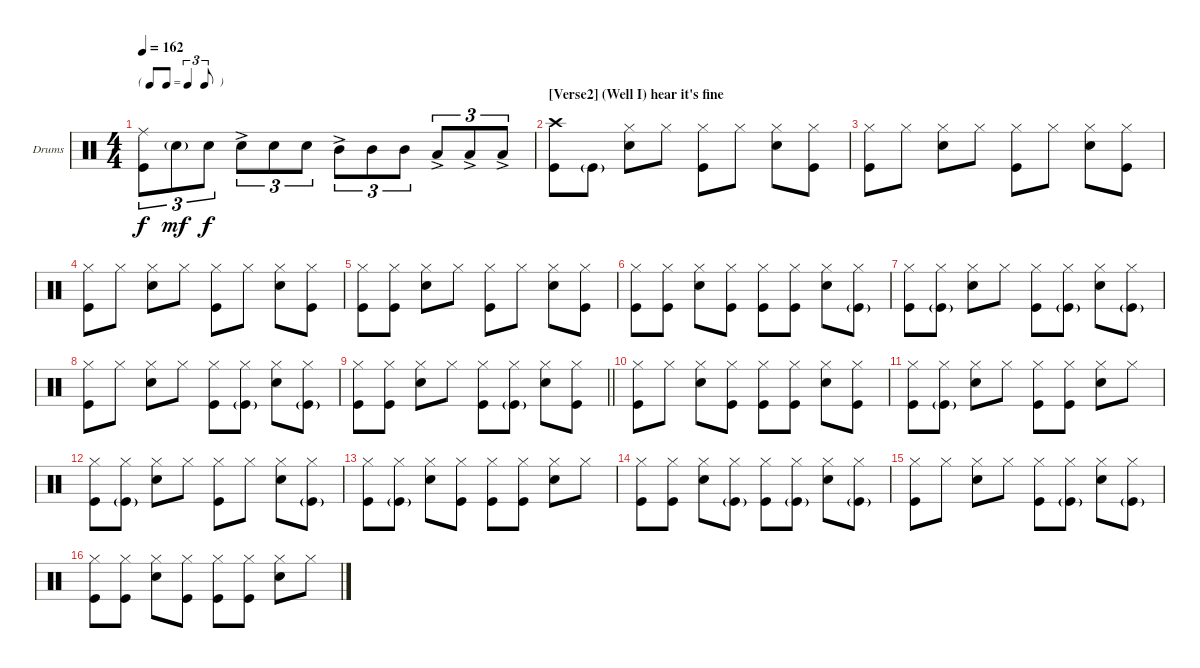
\bracketExtendMode groupsimilarinstruments
\firstSystemTrackNameOrientation horizontal
\otherSystemsTrackNameOrientation horizontal
\track ("Drumkit" "Drums") {instrument percussion}
\staff {score}
\articulation defaults
\ts (4 4)
\tf triplet8th
\tempo 162
\clef neutral
\ks c
("Kick (hit)" "Ride (middle)").8{tu (3 2) dy f} "Snare (hit) 2"{g}.8{tu (3 2) dy mf} "Snare (hit) 2".8{tu (3 2) dy f} "Snare (hit) 2"{ac}.8{tu (3 2)} "Snare (hit) 2".8{tu (3 2)} "Snare (hit) 2".8{tu (3 2)} "Mid Tom (hit)"{ac}.8{tu (3 2)} "Mid Tom (hit)".8{tu (3 2)} "Mid Tom (hit)".8{tu (3 2)} "Low Tom (hit)"{ac}.8{tu (3 2)} "Low Tom (hit)"{ac}.8{tu (3 2)} "Low Tom (hit)"{ac}.8{tu (3 2)} |
\section ("" "[Verse2] (Well I) hear it's fine")
("Kick (hit)" "Crash high (hit)").8 "Kick (hit)"{g}.8 ("Hi-Hat (closed)" "Snare (hit) 2").8 "Hi-Hat (closed)".8 ("Hi-Hat (closed)" "Kick (hit)").8 "Hi-Hat (closed)".8 ("Hi-Hat (closed)" "Snare (hit) 2").8 ("Hi-Hat (closed)" "Kick (hit)").8 |
("Hi-Hat (closed)" "Kick (hit)").8 "Hi-Hat (closed)".8 ("Hi-Hat (closed)" "Snare (hit) 2").8 "Hi-Hat (closed)".8 ("Hi-Hat (closed)" "Kick (hit)").8 "Hi-Hat (closed)".8 ("Hi-Hat (closed)" "Snare (hit) 2").8 ("Hi-Hat (closed)" "Kick (hit)").8 |
("Hi-Hat (closed)" "Kick (hit)").8 "Hi-Hat (closed)".8 ("Hi-Hat (closed)" "Snare (hit) 2").8 "Hi-Hat (closed)".8 ("Hi-Hat (closed)" "Kick (hit)").8 "Hi-Hat (closed)".8 ("Hi-Hat (closed)" "Snare (hit) 2").8 ("Hi-Hat (closed)" "Kick (hit)").8 |
("Hi-Hat (closed)" "Kick (hit)").8 ("Hi-Hat (closed)" "Kick (hit)").8 ("Hi-Hat (closed)" "Snare (hit) 2").8 "Hi-Hat (closed)".8 ("Hi-Hat (closed)" "Kick (hit)").8 "Hi-Hat (closed)".8 ("Hi-Hat (closed)" "Snare (hit) 2").8 ("Hi-Hat (closed)" "Kick (hit)").8 |
("Hi-Hat (closed)" "Kick (hit)").8 ("Hi-Hat (closed)" "Kick (hit)").8 ("Hi-Hat (closed)" "Snare (hit) 2").8 ("Hi-Hat (closed)" "Kick (hit)").8 ("Hi-Hat (closed)" "Kick (hit)").8 ("Hi-Hat (closed)" "Kick (hit)").8 ("Hi-Hat (closed)" "Snare (hit) 2").8 ("Hi-Hat (closed)" "Kick (hit)"{g}).8 |
("Hi-Hat (closed)" "Kick (hit)").8 ("Hi-Hat (closed)" "Kick (hit)"{g}).8 ("Hi-Hat (closed)" "Snare (hit) 2").8 "Hi-Hat (closed)".8 ("Hi-Hat (closed)" "Kick (hit)").8 ("Hi-Hat (closed)" "Kick (hit)"{g}).8 ("Hi-Hat (closed)" "Snare (hit) 2").8 ("Hi-Hat (closed)" "Kick (hit)"{g}).8 |
("Hi-Hat (closed)" "Kick (hit)").8 "Hi-Hat (closed)".8 ("Hi-Hat (closed)" "Snare (hit) 2").8 "Hi-Hat (closed)".8 ("Hi-Hat (closed)" "Kick (hit)").8 ("Hi-Hat (closed)" "Kick (hit)"{g}).8 ("Hi-Hat (closed)" "Snare (hit) 2").8 ("Hi-Hat (closed)" "Kick (hit)"{g}).8 |
\barLineRight lightlight
("Hi-Hat (closed)" "Kick (hit)").8 ("Hi-Hat (closed)" "Kick (hit)").8 ("Hi-Hat (closed)" "Snare (hit) 2").8 "Hi-Hat (closed)".8 ("Hi-Hat (closed)" "Kick (hit)").8 ("Hi-Hat (closed)" "Kick (hit)"{g}).8 ("Hi-Hat (closed)" "Snare (hit) 2").8 ("Hi-Hat (closed)" "Kick (hit)").8 |
("Hi-Hat (closed)" "Kick (hit)").8 "Hi-Hat (closed)".8 ("Hi-Hat (closed)" "Snare (hit) 2").8 ("Hi-Hat (closed)" "Kick (hit)").8 ("Hi-Hat (closed)" "Kick (hit)").8 ("Hi-Hat (closed)" "Kick (hit)").8 ("Hi-Hat (closed)" "Snare (hit) 2").8 ("Hi-Hat (closed)" "Kick (hit)").8 |
("Hi-Hat (closed)" "Kick (hit)").8 ("Hi-Hat (closed)" "Kick (hit)"{g}).8 ("Hi-Hat (closed)" "Snare (hit) 2").8 "Hi-Hat (closed)".8 ("Hi-Hat (closed)" "Kick (hit)").8 ("Hi-Hat (closed)" "Kick (hit)").8 ("Hi-Hat (closed)" "Snare (hit) 2").8 "Hi-Hat (closed)".8 |
("Hi-Hat (closed)" "Kick (hit)").8 ("Hi-Hat (closed)" "Kick (hit)"{g}).8 ("Hi-Hat (closed)" "Snare (hit) 2").8 "Hi-Hat (closed)".8 ("Hi-Hat (closed)" "Kick (hit)").8 "Hi-Hat (closed)".8 ("Hi-Hat (closed)" "Snare (hit) 2").8 ("Hi-Hat (closed)" "Kick (hit)"{g}).8 |
("Hi-Hat (closed)" "Kick (hit)").8 ("Hi-Hat (closed)" "Kick (hit)"{g}).8 ("Hi-Hat (closed)" "Snare (hit) 2").8 ("Hi-Hat (closed)" "Kick (hit)").8 ("Hi-Hat (closed)" "Kick (hit)").8 ("Hi-Hat (closed)" "Kick (hit)").8 ("Hi-Hat (closed)" "Snare (hit) 2").8 "Hi-Hat (closed)".8 |
("Hi-Hat (closed)" "Kick (hit)").8 ("Hi-Hat (closed)" "Kick (hit)").8 ("Hi-Hat (closed)" "Snare (hit) 2").8 ("Hi-Hat (closed)" "Kick (hit)"{g}).8 ("Hi-Hat (closed)" "Kick (hit)").8 ("Hi-Hat (closed)" "Kick (hit)"{g}).8 ("Hi-Hat (closed)" "Snare (hit) 2").8 ("Hi-Hat (closed)" "Kick (hit)"{g}).8 |
("Hi-Hat (closed)" "Kick (hit)").8 "Hi-Hat (closed)".8 ("Hi-Hat (closed)" "Snare (hit) 2").8 "Hi-Hat (closed)".8 ("Hi-Hat (closed)" "Kick (hit)").8 ("Hi-Hat (closed)" "Kick (hit)"{g}).8 ("Hi-Hat (closed)" "Snare (hit) 2").8 ("Hi-Hat (closed)" "Kick (hit)"{g}).8 |
("Hi-Hat (closed)" "Kick (hit)").8 ("Hi-Hat (closed)" "Kick (hit)").8 ("Hi-Hat (closed)" "Snare (hit) 2").8 ("Hi-Hat (closed)" "Kick (hit)").8 ("Hi-Hat (closed)" "Kick (hit)").8 ("Hi-Hat (closed)" "Kick (hit)").8 ("Hi-Hat (closed)" "Snare (hit) 2").8 "Hi-Hat (closed)".8
